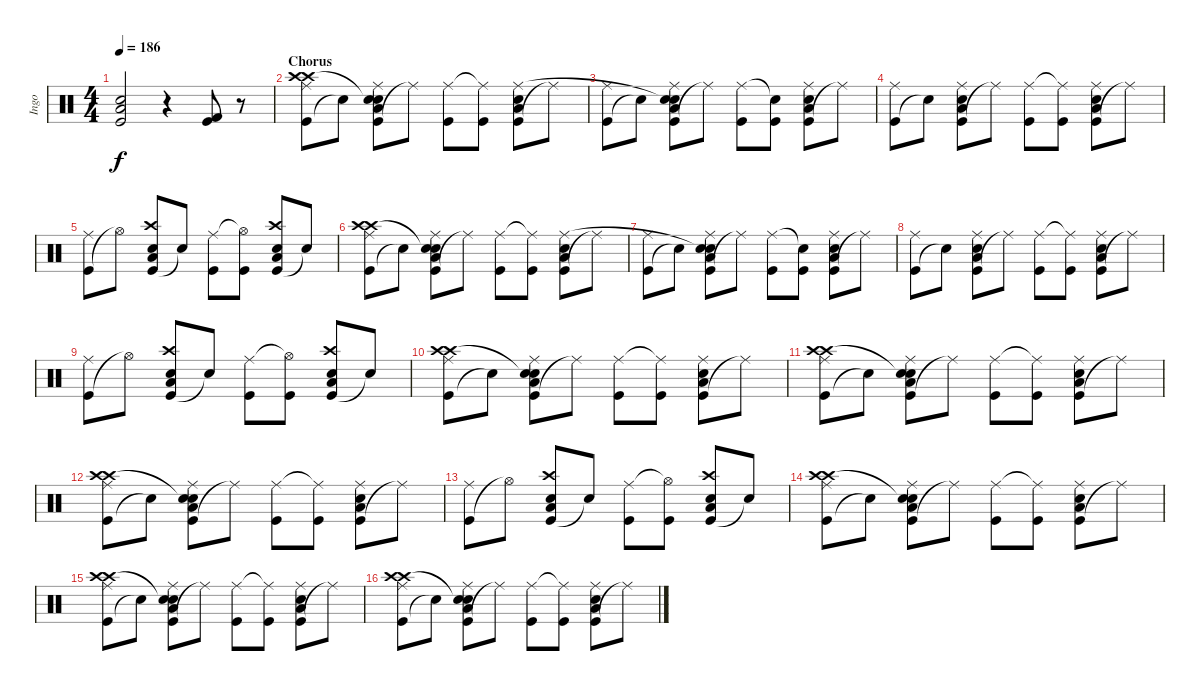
\track ("Ingo" "Ingo") {instrument percussion}
\staff {score}
\articulation defaults
\ts (4 4)
\tempo 186
\clef neutral
\ks c
("Kick (hit)" "Low Floor Tom (hit)" "Snare (hit) 2").2{dy f} r.4 ("Kick (hit)" "Kick (hit) 2").8 r.8 |
\section ("" "Chorus")
("Kick (hit)" "Ride (middle)" "Crash high (hit)" "Crash high (hit)").8 "Snare (hit)"{t}.8 ("Kick (hit)" "Low Tom (hit)" "Snare (hit) 2" "Snare (hit)"{t} "Ride (middle)").8 "Ride (middle)"{t}.8 ("Kick (hit)" "Ride (middle)").8 ("Kick (hit)" "Ride (middle)"{t}).8 ("Kick (hit)" "Low Tom (hit)" "Snare (hit) 2" "Ride (middle)").8 "Ride (middle)"{t}.8 |
("Kick (hit)" "Ride (middle)").8 "Snare (hit)"{t}.8 ("Kick (hit)" "Low Tom (hit)" "Snare (hit) 2" "Snare (hit)"{t} "Ride (middle)").8 "Ride (middle)"{t}.8 ("Kick (hit)" "Ride (middle)").8 ("Kick (hit)" "Snare (hit)"{t}).8 ("Kick (hit)" "Low Tom (hit)" "Snare (hit) 2" "Ride (middle)").8 "Ride (middle)"{t}.8 |
("Kick (hit)" "Ride (middle)").8 "Snare (hit)"{t}.8 ("Kick (hit)" "Low Tom (hit)" "Snare (hit) 2" "Ride (middle)").8 "Ride (middle)"{t}.8 ("Kick (hit)" "Ride (middle)").8 ("Kick (hit)" "Ride (middle)"{t}).8 ("Kick (hit)" "Low Tom (hit)" "Snare (hit) 2" "Ride (middle)").8 "Ride (middle)"{t}.8 |
("Kick (hit)" "Ride (middle)").8 "Hi-Hat (open)"{t}.8 ("Kick (hit)" "Low Tom (hit)" "Snare (hit) 2" "Crash high (hit)").8 "Snare (hit)"{t}.8 ("Kick (hit)" "Ride (middle)").8 ("Kick (hit)" "Hi-Hat (open)"{t}).8 ("Kick (hit)" "Low Tom (hit)" "Snare (hit) 2" "Crash high (hit)").8 "Snare (hit)"{t}.8 |
("Kick (hit)" "Ride (middle)" "Crash high (hit)" "Crash high (hit)").8 "Snare (hit)"{t}.8 ("Kick (hit)" "Low Tom (hit)" "Snare (hit) 2" "Snare (hit)"{t} "Ride (middle)").8 "Ride (middle)"{t}.8 ("Kick (hit)" "Ride (middle)").8 ("Kick (hit)" "Ride (middle)"{t}).8 ("Kick (hit)" "Low Tom (hit)" "Snare (hit) 2" "Ride (middle)").8 "Ride (middle)"{t}.8 |
("Kick (hit)" "Ride (middle)").8 "Snare (hit)"{t}.8 ("Kick (hit)" "Low Tom (hit)" "Snare (hit) 2" "Snare (hit)"{t} "Ride (middle)").8 "Ride (middle)"{t}.8 ("Kick (hit)" "Ride (middle)").8 ("Kick (hit)" "Snare (hit)"{t}).8 ("Kick (hit)" "Low Tom (hit)" "Snare (hit) 2" "Ride (middle)").8 "Ride (middle)"{t}.8 |
("Kick (hit)" "Ride (middle)").8 "Snare (hit)"{t}.8 ("Kick (hit)" "Low Tom (hit)" "Snare (hit) 2" "Ride (middle)").8 "Ride (middle)"{t}.8 ("Kick (hit)" "Ride (middle)").8 ("Kick (hit)" "Ride (middle)"{t}).8 ("Kick (hit)" "Low Tom (hit)" "Snare (hit) 2" "Ride (middle)").8 "Ride (middle)"{t}.8 |
("Kick (hit)" "Ride (middle)").8 "Hi-Hat (open)"{t}.8 ("Kick (hit)" "Low Tom (hit)" "Snare (hit) 2" "Crash high (hit)").8 "Snare (hit)"{t}.8 ("Kick (hit)" "Ride (middle)").8 ("Kick (hit)" "Hi-Hat (open)"{t}).8 ("Kick (hit)" "Low Tom (hit)" "Snare (hit) 2" "Crash high (hit)").8 "Snare (hit)"{t}.8 |
("Kick (hit)" "Ride (middle)" "Crash high (hit)" "Crash high (hit)").8 "Snare (hit)"{t}.8 ("Kick (hit)" "Low Tom (hit)" "Snare (hit) 2" "Snare (hit)"{t} "Ride (middle)").8 "Ride (middle)"{t}.8 ("Kick (hit)" "Ride (middle)").8 ("Kick (hit)" "Ride (middle)"{t}).8 ("Kick (hit)" "Low Tom (hit)" "Snare (hit) 2" "Ride (middle)").8 "Ride (middle)"{t}.8 |
("Kick (hit)" "Ride (middle)" "Crash high (hit)" "Crash high (hit)").8 "Snare (hit)"{t}.8 ("Kick (hit)" "Low Tom (hit)" "Snare (hit) 2" "Snare (hit)"{t} "Ride (middle)").8 "Ride (middle)"{t}.8 ("Kick (hit)" "Ride (middle)").8 ("Kick (hit)" "Ride (middle)"{t}).8 ("Kick (hit)" "Low Tom (hit)" "Snare (hit) 2" "Ride (middle)").8 "Ride (middle)"{t}.8 |
("Kick (hit)" "Ride (middle)" "Crash high (hit)" "Crash high (hit)").8 "Snare (hit)"{t}.8 ("Kick (hit)" "Low Tom (hit)" "Snare (hit) 2" "Snare (hit)"{t} "Ride (middle)").8 "Ride (middle)"{t}.8 ("Kick (hit)" "Ride (middle)").8 ("Kick (hit)" "Ride (middle)"{t}).8 ("Kick (hit)" "Low Tom (hit)" "Snare (hit) 2" "Ride (middle)").8 "Ride (middle)"{t}.8 |
("Kick (hit)" "Ride (middle)").8 "Hi-Hat (open)"{t}.8 ("Kick (hit)" "Low Tom (hit)" "Snare (hit) 2" "Crash high (hit)").8 "Snare (hit)"{t}.8 ("Kick (hit)" "Ride (middle)").8 ("Kick (hit)" "Hi-Hat (open)"{t}).8 ("Kick (hit)" "Low Tom (hit)" "Snare (hit) 2" "Crash high (hit)").8 "Snare (hit)"{t}.8 |
("Kick (hit)" "Ride (middle)" "Crash high (hit)" "Crash high (hit)").8 "Snare (hit)"{t}.8 ("Kick (hit)" "Low Tom (hit)" "Snare (hit) 2" "Snare (hit)"{t} "Ride (middle)").8 "Ride (middle)"{t}.8 ("Kick (hit)" "Ride (middle)").8 ("Kick (hit)" "Ride (middle)"{t}).8 ("Kick (hit)" "Low Tom (hit)" "Snare (hit) 2" "Ride (middle)").8 "Ride (middle)"{t}.8 |
("Kick (hit)" "Ride (middle)" "Crash high (hit)" "Crash high (hit)").8 "Snare (hit)"{t}.8 ("Kick (hit)" "Low Tom (hit)" "Snare (hit) 2" "Snare (hit)"{t} "Ride (middle)").8 "Ride (middle)"{t}.8 ("Kick (hit)" "Ride (middle)").8 ("Kick (hit)" "Ride (middle)"{t}).8 ("Kick (hit)" "Low Tom (hit)" "Snare (hit) 2" "Ride (middle)").8 "Ride (middle)"{t}.8 |
("Kick (hit)" "Ride (middle)" "Crash high (hit)" "Crash high (hit)").8 "Snare (hit)"{t}.8 ("Kick (hit)" "Low Tom (hit)" "Snare (hit) 2" "Snare (hit)"{t} "Ride (middle)").8 "Ride (middle)"{t}.8 ("Kick (hit)" "Ride (middle)").8 ("Kick (hit)" "Ride (middle)"{t}).8 ("Kick (hit)" "Low Tom (hit)" "Snare (hit) 2" "Ride (middle)").8 "Ride (middle)"{t}.8
